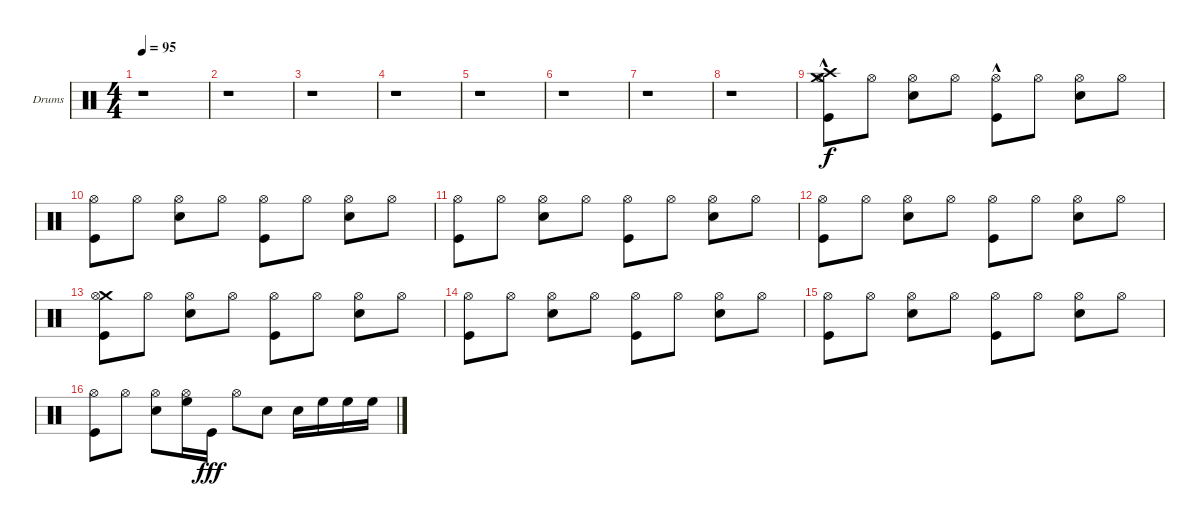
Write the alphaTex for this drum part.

\bracketExtendMode groupsimilarinstruments
\firstSystemTrackNameOrientation horizontal
\otherSystemsTrackNameOrientation horizontal
\track ("Drumkit" "Drums") {solo instrument percussion}
\staff {score}
\articulation defaults
\ts (4 4)
\beaming (8 2 2 2 2)
\tempo 95
\clef neutral
\scale
0.641509
\ks c
r.1{dy f} |
\scale
0.358491 r.1 |
\scale
0.5 r.1 |
\scale
0.5 r.1 |
\scale
0.5 r.1 |
\scale
0.5 r.1 |
\scale
0.5 r.1 |
\scale
0.5 r.1 |
\scale
0.5 ("Crash medium (hit)" "Crash high (hit)" "Hi-Hat (open)" "Kick (hit)"{hac}).8 "Hi-Hat (open)".8 ("Hi-Hat (open)" "Snare (hit) 2").8 "Hi-Hat (open)".8 ("Hi-Hat (open)" "Kick (hit)"{hac}).8 "Hi-Hat (open)".8 ("Hi-Hat (open)" "Snare (hit) 2").8 "Hi-Hat (open)".8 |
\scale
0.5 ("Hi-Hat (open)" "Kick (hit)").8 "Hi-Hat (open)".8 ("Hi-Hat (open)" "Snare (hit) 2").8 "Hi-Hat (open)".8 ("Hi-Hat (open)" "Kick (hit)").8 "Hi-Hat (open)".8 ("Hi-Hat (open)" "Snare (hit) 2").8 "Hi-Hat (open)".8 |
\scale
0.5 ("Hi-Hat (open)" "Kick (hit)").8 "Hi-Hat (open)".8 ("Hi-Hat (open)" "Snare (hit) 2").8 "Hi-Hat (open)".8 ("Hi-Hat (open)" "Kick (hit)").8 "Hi-Hat (open)".8 ("Hi-Hat (open)" "Snare (hit) 2").8 "Hi-Hat (open)".8 |
\scale
0.5 ("Hi-Hat (open)" "Kick (hit)").8 "Hi-Hat (open)".8 ("Hi-Hat (open)" "Snare (hit) 2").8 "Hi-Hat (open)".8 ("Hi-Hat (open)" "Kick (hit)").8 "Hi-Hat (open)".8 ("Hi-Hat (open)" "Snare (hit) 2").8 "Hi-Hat (open)".8 |
\scale
0.5 ("Crash medium (hit)" "Hi-Hat (open)" "Kick (hit)").8 "Hi-Hat (open)".8 ("Hi-Hat (open)" "Snare (hit) 2").8 "Hi-Hat (open)".8 ("Hi-Hat (open)" "Kick (hit)").8 "Hi-Hat (open)".8 ("Hi-Hat (open)" "Snare (hit) 2").8 "Hi-Hat (open)".8 |
\scale
0.5 ("Hi-Hat (open)" "Kick (hit)").8 "Hi-Hat (open)".8 ("Hi-Hat (open)" "Snare (hit) 2").8 "Hi-Hat (open)".8 ("Hi-Hat (open)" "Kick (hit)").8 "Hi-Hat (open)".8 ("Hi-Hat (open)" "Snare (hit) 2").8 "Hi-Hat (open)".8 |
\scale
0.5 ("Hi-Hat (open)" "Kick (hit)").8 "Hi-Hat (open)".8 ("Hi-Hat (open)" "Snare (hit) 2").8 "Hi-Hat (open)".8 ("Hi-Hat (open)" "Kick (hit)").8 "Hi-Hat (open)".8 ("Hi-Hat (open)" "Snare (hit) 2").8 "Hi-Hat (open)".8 |
\scale
0.5 ("Hi-Hat (open)" "Kick (hit)").8 "Hi-Hat (open)".8 ("Hi-Hat (open)" "Snare (hit) 2").8 ("Hi-Hat (open)" "High Floor Tom (hit)").16 "Kick (hit)".16{dy fff} "Hi-Hat (open)".8 "Snare (hit) 2".8 "Snare (hit) 2".16 "High Floor Tom (hit)".16 "High Floor Tom (hit)".16 "High Floor Tom (hit)".16
